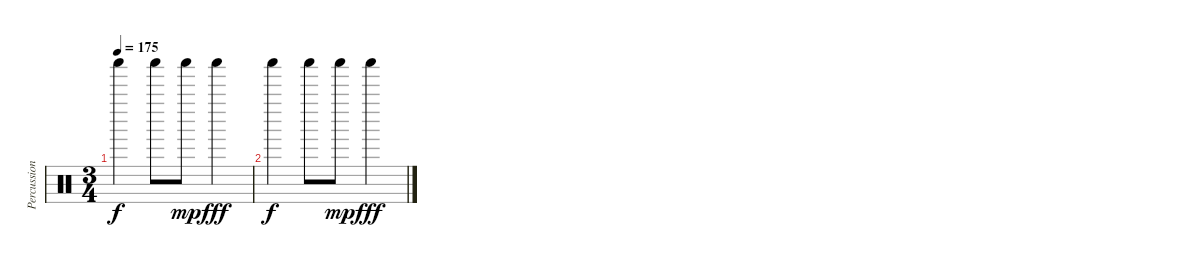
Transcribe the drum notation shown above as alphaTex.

\track ("Percussion" "Percussion") {instrument percussion}
\staff {score}
\articulation defaults
\ts (3 4)
\tempo 175
\clef neutral
\ks c "Shaker (hit)".4{dy f} "Shaker (hit)".8 "Shaker (hit)".8{dy mp} "Shaker (hit)".4{dy fff}
|
"Shaker (hit)".4{dy f} "Shaker (hit)".8 "Shaker (hit)".8{dy mp} "Shaker (hit)".4{dy fff}
